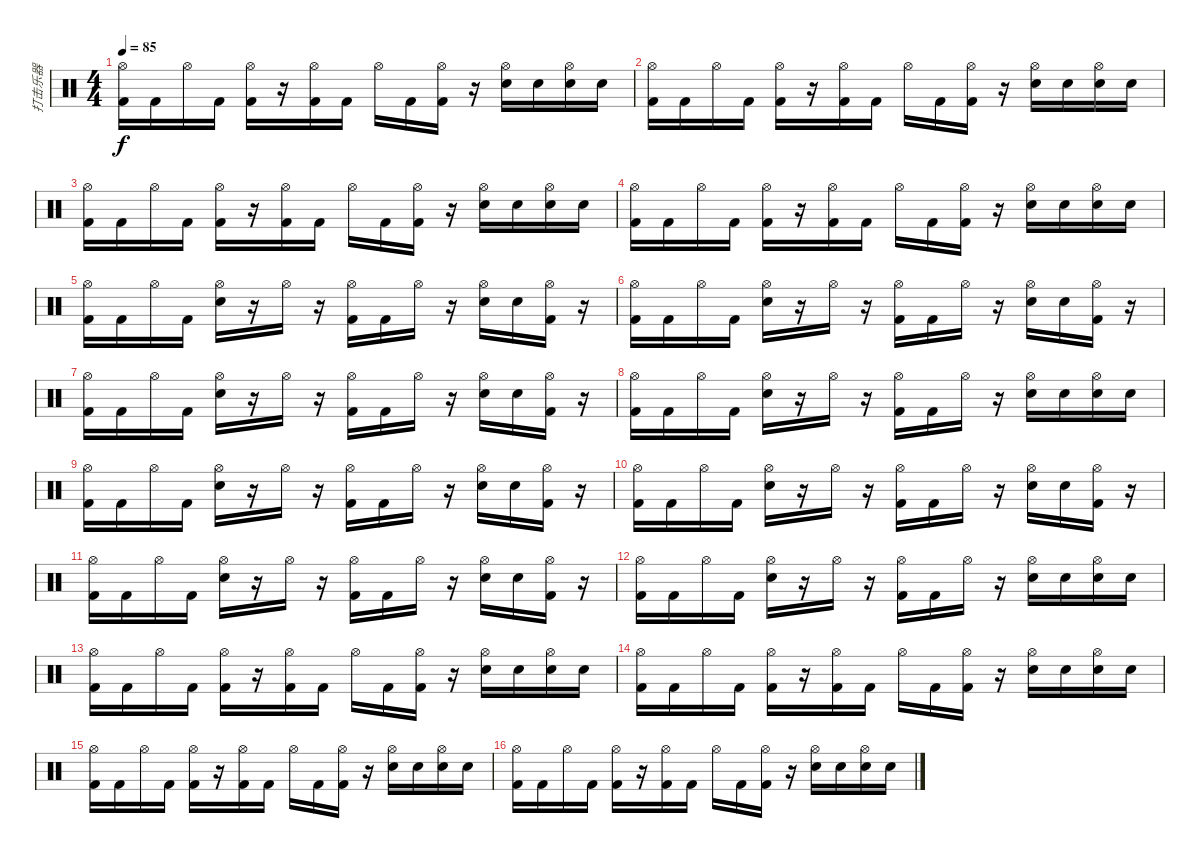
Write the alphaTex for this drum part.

\track ("打击乐器" "打击乐器") {instrument percussion}
\staff {score}
\articulation defaults
\ts (4 4)
\tempo 85
\clef neutral
\ks c
("Hi-Hat (open)" "Kick (hit) 2").16{dy f} "Kick (hit) 2".16 "Hi-Hat (open)".16 "Kick (hit) 2".16 ("Hi-Hat (open)" "Kick (hit) 2").16 r.16 ("Hi-Hat (open)" "Kick (hit) 2").16 "Kick (hit) 2".16 "Hi-Hat (open)".16 "Kick (hit) 2".16 ("Hi-Hat (open)" "Kick (hit) 2").16 r.16 ("Hi-Hat (open)" "Snare (hit) 2").16 "Snare (hit) 2".16 ("Hi-Hat (open)" "Snare (hit) 2").16 "Snare (hit) 2".16 |
("Hi-Hat (open)" "Kick (hit) 2").16 "Kick (hit) 2".16 "Hi-Hat (open)".16 "Kick (hit) 2".16 ("Hi-Hat (open)" "Kick (hit) 2").16 r.16 ("Hi-Hat (open)" "Kick (hit) 2").16 "Kick (hit) 2".16 "Hi-Hat (open)".16 "Kick (hit) 2".16 ("Hi-Hat (open)" "Kick (hit) 2").16 r.16 ("Hi-Hat (open)" "Snare (hit) 2").16 "Snare (hit) 2".16 ("Hi-Hat (open)" "Snare (hit) 2").16 "Snare (hit) 2".16 |
("Hi-Hat (open)" "Kick (hit) 2").16 "Kick (hit) 2".16 "Hi-Hat (open)".16 "Kick (hit) 2".16 ("Hi-Hat (open)" "Kick (hit) 2").16 r.16 ("Hi-Hat (open)" "Kick (hit) 2").16 "Kick (hit) 2".16 "Hi-Hat (open)".16 "Kick (hit) 2".16 ("Hi-Hat (open)" "Kick (hit) 2").16 r.16 ("Hi-Hat (open)" "Snare (hit) 2").16 "Snare (hit) 2".16 ("Hi-Hat (open)" "Snare (hit) 2").16 "Snare (hit) 2".16 |
("Hi-Hat (open)" "Kick (hit) 2").16 "Kick (hit) 2".16 "Hi-Hat (open)".16 "Kick (hit) 2".16 ("Hi-Hat (open)" "Kick (hit) 2").16 r.16 ("Hi-Hat (open)" "Kick (hit) 2").16 "Kick (hit) 2".16 "Hi-Hat (open)".16 "Kick (hit) 2".16 ("Hi-Hat (open)" "Kick (hit) 2").16 r.16 ("Hi-Hat (open)" "Snare (hit) 2").16 "Snare (hit) 2".16 ("Hi-Hat (open)" "Snare (hit) 2").16 "Snare (hit) 2".16 |
("Hi-Hat (open)" "Kick (hit) 2").16 "Kick (hit) 2".16 "Hi-Hat (open)".16 "Kick (hit) 2".16 ("Hi-Hat (open)" "Snare (hit) 2").16 r.16 "Hi-Hat (open)".16 r.16 ("Hi-Hat (open)" "Kick (hit) 2").16 "Kick (hit) 2".16 "Hi-Hat (open)".16 r.16 ("Hi-Hat (open)" "Snare (hit) 2").16 "Snare (hit) 2".16 ("Hi-Hat (open)" "Kick (hit) 2").16 r.16 |
("Hi-Hat (open)" "Kick (hit) 2").16 "Kick (hit) 2".16 "Hi-Hat (open)".16 "Kick (hit) 2".16 ("Hi-Hat (open)" "Snare (hit) 2").16 r.16 "Hi-Hat (open)".16 r.16 ("Hi-Hat (open)" "Kick (hit) 2").16 "Kick (hit) 2".16 "Hi-Hat (open)".16 r.16 ("Hi-Hat (open)" "Snare (hit) 2").16 "Snare (hit) 2".16 ("Hi-Hat (open)" "Kick (hit) 2").16 r.16 |
("Hi-Hat (open)" "Kick (hit) 2").16 "Kick (hit) 2".16 "Hi-Hat (open)".16 "Kick (hit) 2".16 ("Hi-Hat (open)" "Snare (hit) 2").16 r.16 "Hi-Hat (open)".16 r.16 ("Hi-Hat (open)" "Kick (hit) 2").16 "Kick (hit) 2".16 "Hi-Hat (open)".16 r.16 ("Hi-Hat (open)" "Snare (hit) 2").16 "Snare (hit) 2".16 ("Hi-Hat (open)" "Kick (hit) 2").16 r.16 |
("Hi-Hat (open)" "Kick (hit) 2").16 "Kick (hit) 2".16 "Hi-Hat (open)".16 "Kick (hit) 2".16 ("Hi-Hat (open)" "Snare (hit) 2").16 r.16 "Hi-Hat (open)".16 r.16 ("Hi-Hat (open)" "Kick (hit) 2").16 "Kick (hit) 2".16 "Hi-Hat (open)".16 r.16 ("Hi-Hat (open)" "Snare (hit) 2").16 "Snare (hit) 2".16 ("Hi-Hat (open)" "Snare (hit) 2").16 "Snare (hit) 2".16 |
("Hi-Hat (open)" "Kick (hit) 2").16 "Kick (hit) 2".16 "Hi-Hat (open)".16 "Kick (hit) 2".16 ("Hi-Hat (open)" "Snare (hit) 2").16 r.16 "Hi-Hat (open)".16 r.16 ("Hi-Hat (open)" "Kick (hit) 2").16 "Kick (hit) 2".16 "Hi-Hat (open)".16 r.16 ("Hi-Hat (open)" "Snare (hit) 2").16 "Snare (hit) 2".16 ("Hi-Hat (open)" "Kick (hit) 2").16 r.16 |
("Hi-Hat (open)" "Kick (hit) 2").16 "Kick (hit) 2".16 "Hi-Hat (open)".16 "Kick (hit) 2".16 ("Hi-Hat (open)" "Snare (hit) 2").16 r.16 "Hi-Hat (open)".16 r.16 ("Hi-Hat (open)" "Kick (hit) 2").16 "Kick (hit) 2".16 "Hi-Hat (open)".16 r.16 ("Hi-Hat (open)" "Snare (hit) 2").16 "Snare (hit) 2".16 ("Hi-Hat (open)" "Kick (hit) 2").16 r.16 |
("Hi-Hat (open)" "Kick (hit) 2").16 "Kick (hit) 2".16 "Hi-Hat (open)".16 "Kick (hit) 2".16 ("Hi-Hat (open)" "Snare (hit) 2").16 r.16 "Hi-Hat (open)".16 r.16 ("Hi-Hat (open)" "Kick (hit) 2").16 "Kick (hit) 2".16 "Hi-Hat (open)".16 r.16 ("Hi-Hat (open)" "Snare (hit) 2").16 "Snare (hit) 2".16 ("Hi-Hat (open)" "Kick (hit) 2").16 r.16 |
("Hi-Hat (open)" "Kick (hit) 2").16 "Kick (hit) 2".16 "Hi-Hat (open)".16 "Kick (hit) 2".16 ("Hi-Hat (open)" "Snare (hit) 2").16 r.16 "Hi-Hat (open)".16 r.16 ("Hi-Hat (open)" "Kick (hit) 2").16 "Kick (hit) 2".16 "Hi-Hat (open)".16 r.16 ("Hi-Hat (open)" "Snare (hit) 2").16 "Snare (hit) 2".16 ("Hi-Hat (open)" "Snare (hit) 2").16 "Snare (hit) 2".16 |
("Hi-Hat (open)" "Kick (hit) 2").16 "Kick (hit) 2".16 "Hi-Hat (open)".16 "Kick (hit) 2".16 ("Hi-Hat (open)" "Kick (hit) 2").16 r.16 ("Hi-Hat (open)" "Kick (hit) 2").16 "Kick (hit) 2".16 "Hi-Hat (open)".16 "Kick (hit) 2".16 ("Hi-Hat (open)" "Kick (hit) 2").16 r.16 ("Hi-Hat (open)" "Snare (hit) 2").16 "Snare (hit) 2".16 ("Hi-Hat (open)" "Snare (hit) 2").16 "Snare (hit) 2".16 |
("Hi-Hat (open)" "Kick (hit) 2").16 "Kick (hit) 2".16 "Hi-Hat (open)".16 "Kick (hit) 2".16 ("Hi-Hat (open)" "Kick (hit) 2").16 r.16 ("Hi-Hat (open)" "Kick (hit) 2").16 "Kick (hit) 2".16 "Hi-Hat (open)".16 "Kick (hit) 2".16 ("Hi-Hat (open)" "Kick (hit) 2").16 r.16 ("Hi-Hat (open)" "Snare (hit) 2").16 "Snare (hit) 2".16 ("Hi-Hat (open)" "Snare (hit) 2").16 "Snare (hit) 2".16 |
("Hi-Hat (open)" "Kick (hit) 2").16 "Kick (hit) 2".16 "Hi-Hat (open)".16 "Kick (hit) 2".16 ("Hi-Hat (open)" "Kick (hit) 2").16 r.16 ("Hi-Hat (open)" "Kick (hit) 2").16 "Kick (hit) 2".16 "Hi-Hat (open)".16 "Kick (hit) 2".16 ("Hi-Hat (open)" "Kick (hit) 2").16 r.16 ("Hi-Hat (open)" "Snare (hit) 2").16 "Snare (hit) 2".16 ("Hi-Hat (open)" "Snare (hit) 2").16 "Snare (hit) 2".16 |
("Hi-Hat (open)" "Kick (hit) 2").16 "Kick (hit) 2".16 "Hi-Hat (open)".16 "Kick (hit) 2".16 ("Hi-Hat (open)" "Kick (hit) 2").16 r.16 ("Hi-Hat (open)" "Kick (hit) 2").16 "Kick (hit) 2".16 "Hi-Hat (open)".16 "Kick (hit) 2".16 ("Hi-Hat (open)" "Kick (hit) 2").16 r.16 ("Hi-Hat (open)" "Snare (hit) 2").16 "Snare (hit) 2".16 ("Hi-Hat (open)" "Snare (hit) 2").16 "Snare (hit) 2".16
